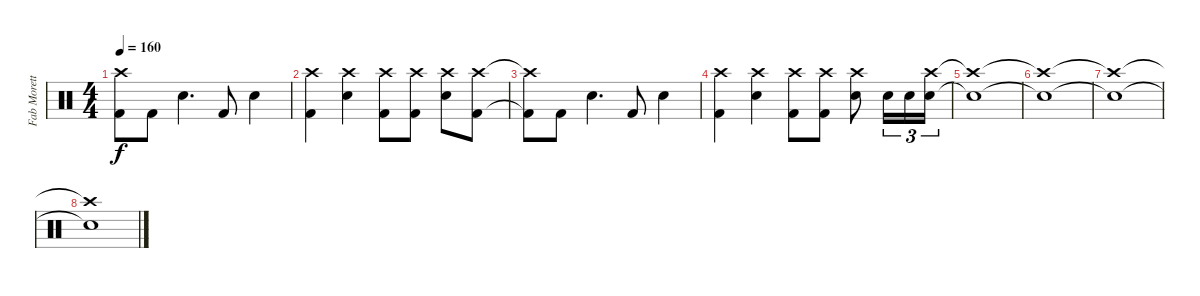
\track ("Fab Moretti " "Fab Morett") {instrument percussion}
\staff {score}
\articulation defaults
\ts (4 4)
\tempo 160
\clef neutral
\ks c
("Crash high (hit)"{t} "Kick (hit) 2"{t}).8{dy f} "Kick (hit) 2".8 "Electric Snare (hit)".4{d} "Kick (hit) 2".8 "Electric Snare (hit)".4 |
("Crash high (hit)" "Kick (hit) 2").4 ("Crash high (hit)" "Electric Snare (hit)").4 ("Crash high (hit)" "Kick (hit) 2").8 ("Crash high (hit)" "Kick (hit) 2").8 ("Crash high (hit)" "Electric Snare (hit)").8 ("Crash high (hit)" "Kick (hit) 2").8 |
("Crash high (hit)"{t} "Kick (hit) 2"{t}).8 "Kick (hit) 2".8 "Electric Snare (hit)".4{d} "Kick (hit) 2".8 "Electric Snare (hit)".4 |
("Crash high (hit)" "Kick (hit) 2").4 ("Crash high (hit)" "Electric Snare (hit)").4 ("Crash high (hit)" "Kick (hit) 2").8 ("Crash high (hit)" "Kick (hit) 2").8 ("Crash high (hit)" "Electric Snare (hit)").8 "Electric Snare (hit)".16{tu (3 2)} "Electric Snare (hit)".16{tu (3 2) beam merge} ("Electric Snare (hit)" "Crash high (hit)").16{tu (3 2)} |
("Electric Snare (hit)"{t} "Crash high (hit)"{t}).1 |
("Electric Snare (hit)"{t} "Crash high (hit)"{t}).1 |
("Electric Snare (hit)"{t} "Crash high (hit)"{t}).1 |
("Electric Snare (hit)"{t} "Crash high (hit)"{t}).1
